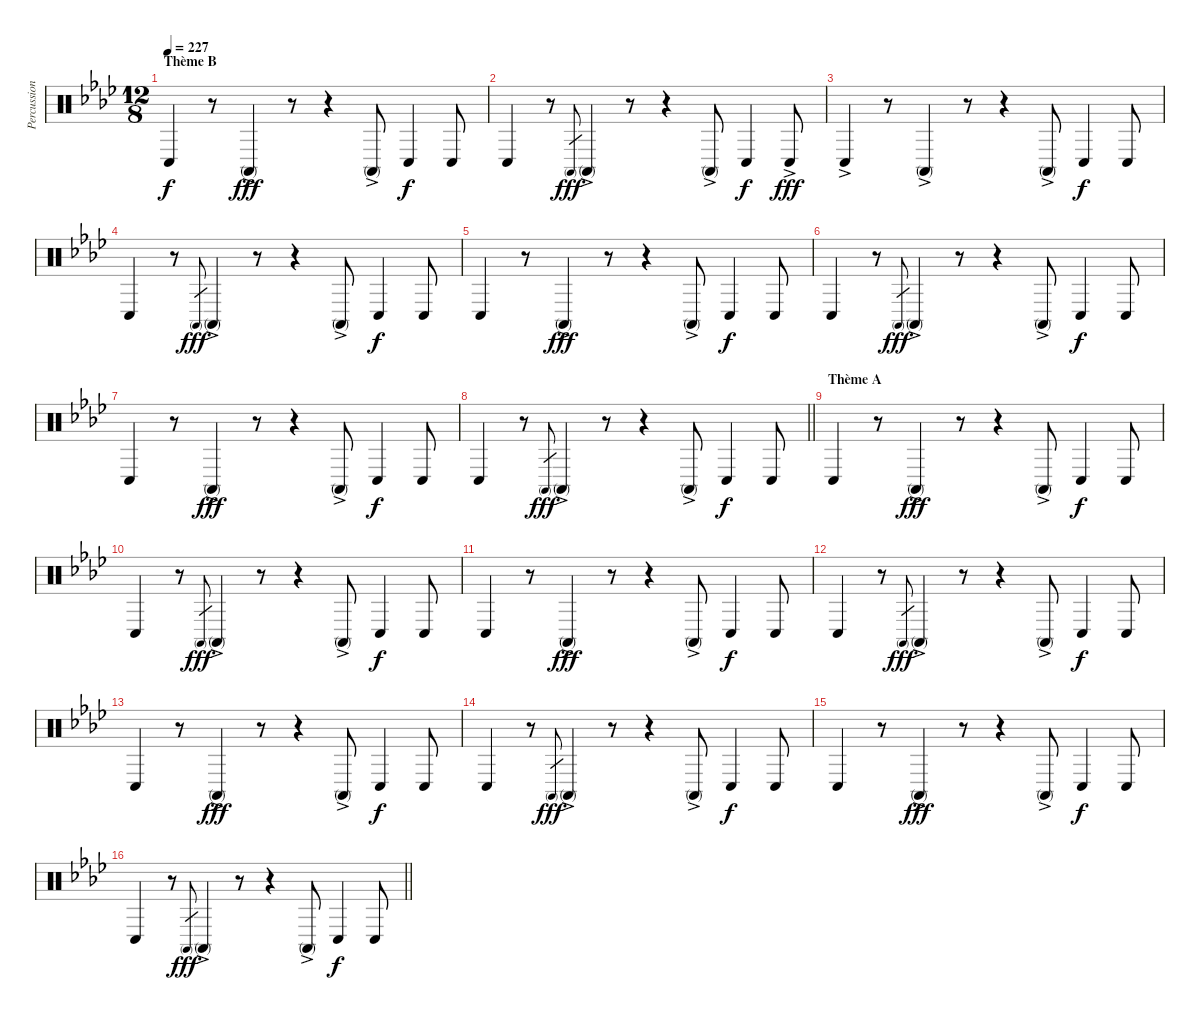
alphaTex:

\track ("Percussions" "Percussion") {instrument percussion}
\staff {score}
\articulation defaults
\ts (12 8)
\section ("" "Thème B")
\tempo 227
\clef neutral
\ks fminor "Conga low (hit)".4{dy f volume 13 balance 8}
r.8 "Conga high (mute)"{ac}.4{dy fff} r.8 r.4 "Conga high (mute)"{ac}.8 "Conga low (hit)".4{dy f} "Conga low (hit)".8 |
"Conga low (hit)".4 r.8 "Conga high (mute)".8{gr dy fff} "Conga high (mute)"{ac}.4 r.8 r.4 "Conga high (mute)"{ac}.8 "Conga low (hit)".4{dy f} "Conga low (hit)"{ac}.8{dy fff} |
"Conga low (hit)"{ac}.4 r.8 "Conga high (mute)"{ac}.4 r.8 r.4 "Conga high (mute)"{ac}.8 "Conga low (hit)".4{dy f} "Conga low (hit)".8 |
"Conga low (hit)".4 r.8 "Conga high (mute)".8{gr dy fff} "Conga high (mute)"{ac}.4 r.8 r.4 "Conga high (mute)"{ac}.8 "Conga low (hit)".4{dy f} "Conga low (hit)".8 |
"Conga low (hit)".4 r.8 "Conga high (mute)"{ac}.4{dy fff} r.8 r.4 "Conga high (mute)"{ac}.8 "Conga low (hit)".4{dy f} "Conga low (hit)".8 |
"Conga low (hit)".4 r.8 "Conga high (mute)".8{gr dy fff} "Conga high (mute)"{ac}.4 r.8 r.4 "Conga high (mute)"{ac}.8 "Conga low (hit)".4{dy f} "Conga low (hit)".8 |
"Conga low (hit)".4 r.8 "Conga high (mute)"{ac}.4{dy fff} r.8 r.4 "Conga high (mute)"{ac}.8 "Conga low (hit)".4{dy f} "Conga low (hit)".8 |
\barLineRight lightlight "Conga low (hit)".4
r.8 "Conga high (mute)".8{gr dy fff} "Conga high (mute)"{ac}.4 r.8 r.4 "Conga high (mute)"{ac}.8 "Conga low (hit)".4{dy f} "Conga low (hit)".8 |
\section ("" "Thème A")
"Conga low (hit)".4{volume 12 balance 8} r.8 "Conga high (mute)"{ac}.4{dy fff} r.8 r.4 "Conga high (mute)"{ac}.8 "Conga low (hit)".4{dy f} "Conga low (hit)".8 |
"Conga low (hit)".4 r.8 "Conga high (mute)".8{gr dy fff} "Conga high (mute)"{ac}.4 r.8 r.4 "Conga high (mute)"{ac}.8 "Conga low (hit)".4{dy f} "Conga low (hit)".8 |
"Conga low (hit)".4 r.8 "Conga high (mute)"{ac}.4{dy fff} r.8 r.4 "Conga high (mute)"{ac}.8 "Conga low (hit)".4{dy f} "Conga low (hit)".8 |
"Conga low (hit)".4 r.8 "Conga high (mute)".8{gr dy fff} "Conga high (mute)"{ac}.4 r.8 r.4 "Conga high (mute)"{ac}.8 "Conga low (hit)".4{dy f} "Conga low (hit)".8 |
"Conga low (hit)".4 r.8 "Conga high (mute)"{ac}.4{dy fff} r.8 r.4 "Conga high (mute)"{ac}.8 "Conga low (hit)".4{dy f} "Conga low (hit)".8 |
"Conga low (hit)".4 r.8 "Conga high (mute)".8{gr dy fff} "Conga high (mute)"{ac}.4 r.8 r.4 "Conga high (mute)"{ac}.8 "Conga low (hit)".4{dy f} "Conga low (hit)".8 |
"Conga low (hit)".4 r.8 "Conga high (mute)"{ac}.4{dy fff} r.8 r.4 "Conga high (mute)"{ac}.8 "Conga low (hit)".4{dy f} "Conga low (hit)".8 |
\barLineRight lightlight "Conga low (hit)".4
r.8 "Conga high (mute)".8{gr dy fff} "Conga high (mute)"{ac}.4 r.8 r.4 "Conga high (mute)"{ac}.8 "Conga low (hit)".4{dy f} "Conga low (hit)".8
